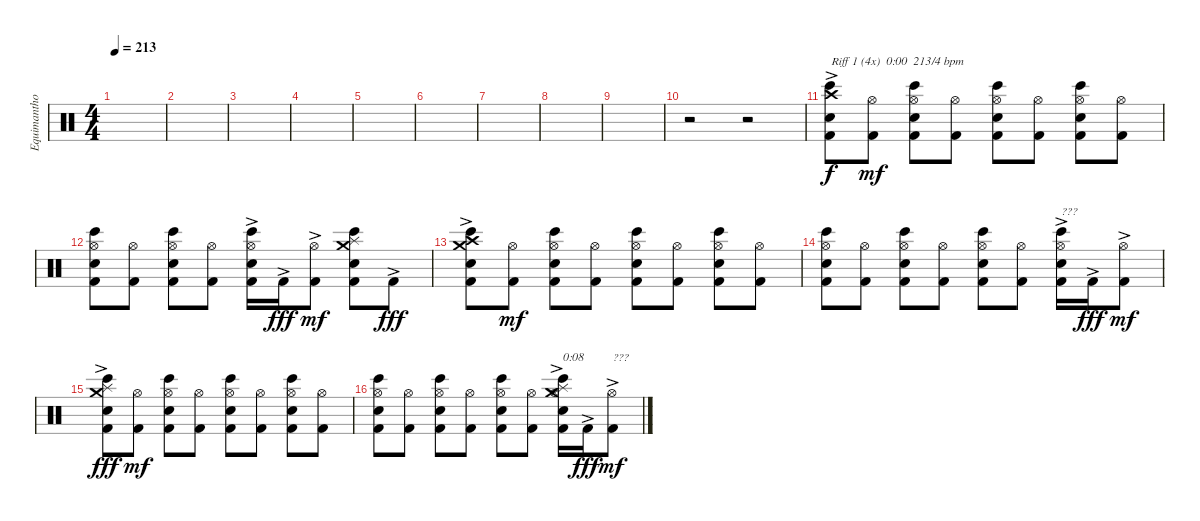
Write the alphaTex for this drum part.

\track ("Equimanthorn" "Equimantho") {instrument percussion}
\staff {score}
\articulation defaults
\ts (4 4)
\tempo 213
\clef neutral
\ks c
|
|
|
|
|
|
|
|
|
r.2 r.2{volume 13} |
("Kick (hit) 2" "Bongo High (hit)" "Electric Snare (hit)" "Crash high (hit)"{ac}).8{txt "Riff 1 (4x)  0:00  213/4 bpm"} ("Kick (hit) 2" "Hi-Hat (open)").8{dy mf} ("Kick (hit) 2" "Bongo High (hit)" "Electric Snare (hit)" "Hi-Hat (open)").8 ("Kick (hit) 2" "Hi-Hat (open)").8 ("Kick (hit) 2" "Bongo High (hit)" "Electric Snare (hit)" "Hi-Hat (open)").8 ("Kick (hit) 2" "Hi-Hat (open)").8 ("Kick (hit) 2" "Bongo High (hit)" "Electric Snare (hit)" "Hi-Hat (open)").8 ("Kick (hit) 2" "Hi-Hat (open)").8 |
("Kick (hit) 2" "Bongo High (hit)" "Electric Snare (hit)" "Hi-Hat (open)").8 ("Kick (hit) 2" "Hi-Hat (open)").8 ("Kick (hit) 2" "Bongo High (hit)" "Electric Snare (hit)" "Hi-Hat (open)").8 ("Kick (hit) 2" "Hi-Hat (open)").8 ("Kick (hit) 2"{ac} "Bongo High (hit)" "Electric Snare (hit)" "Hi-Hat (open)").16 "Kick (hit) 2"{ac}.16{dy fff} ("Kick (hit) 2"{ac} "Hi-Hat (open)").8{dy mf} ("Kick (hit) 2" "Bongo High (hit)" "Electric Snare (hit)" "Splash (hit)" "Crash medium (hit)").8 "Kick (hit) 2"{ac}.8{dy fff} |
("Kick (hit) 2" "Bongo High (hit)" "Electric Snare (hit)" "Crash high (hit)"{ac} "Crash medium (hit)").8 ("Kick (hit) 2" "Hi-Hat (open)").8{dy mf} ("Kick (hit) 2" "Bongo High (hit)" "Electric Snare (hit)" "Hi-Hat (open)").8 ("Kick (hit) 2" "Hi-Hat (open)").8 ("Kick (hit) 2" "Bongo High (hit)" "Electric Snare (hit)" "Hi-Hat (open)").8 ("Kick (hit) 2" "Hi-Hat (open)").8 ("Kick (hit) 2" "Bongo High (hit)" "Electric Snare (hit)" "Hi-Hat (open)").8 ("Kick (hit) 2" "Hi-Hat (open)").8 |
("Kick (hit) 2" "Bongo High (hit)" "Electric Snare (hit)" "Hi-Hat (open)").8 ("Kick (hit) 2" "Hi-Hat (open)").8 ("Kick (hit) 2" "Bongo High (hit)" "Electric Snare (hit)" "Hi-Hat (open)").8 ("Kick (hit) 2" "Hi-Hat (open)").8 ("Kick (hit) 2" "Bongo High (hit)" "Electric Snare (hit)" "Hi-Hat (open)").8 ("Kick (hit) 2" "Hi-Hat (open)").8 ("Kick (hit) 2"{ac} "Bongo High (hit)" "Electric Snare (hit)" "Hi-Hat (open)").16{txt "???"} "Kick (hit) 2"{ac}.16{dy fff} ("Kick (hit) 2"{ac} "Hi-Hat (open)").8{dy mf} |
("Kick (hit) 2" "Bongo High (hit)" "Electric Snare (hit)" "Splash (hit)" "Crash medium (hit)"{ac}).8{dy fff} ("Kick (hit) 2" "Hi-Hat (open)").8{dy mf} ("Kick (hit) 2" "Bongo High (hit)" "Electric Snare (hit)" "Hi-Hat (open)").8 ("Kick (hit) 2" "Hi-Hat (open)").8 ("Kick (hit) 2" "Bongo High (hit)" "Electric Snare (hit)" "Hi-Hat (open)").8 ("Kick (hit) 2" "Hi-Hat (open)").8 ("Kick (hit) 2" "Bongo High (hit)" "Electric Snare (hit)" "Hi-Hat (open)").8 ("Kick (hit) 2" "Hi-Hat (open)").8 |
("Kick (hit) 2" "Bongo High (hit)" "Electric Snare (hit)" "Hi-Hat (open)").8 ("Kick (hit) 2" "Hi-Hat (open)").8 ("Kick (hit) 2" "Bongo High (hit)" "Electric Snare (hit)" "Hi-Hat (open)").8 ("Kick (hit) 2" "Hi-Hat (open)").8 ("Kick (hit) 2" "Bongo High (hit)" "Electric Snare (hit)" "Hi-Hat (open)").8 ("Kick (hit) 2" "Hi-Hat (open)").8 ("Kick (hit) 2"{ac} "Bongo High (hit)" "Electric Snare (hit)" "Hi-Hat (open)" "Splash (hit)" "Crash medium (hit)").16{txt "0:08"} "Kick (hit) 2"{ac}.16{dy fff} ("Kick (hit) 2"{ac} "Hi-Hat (open)").8{txt "???" dy mf}
